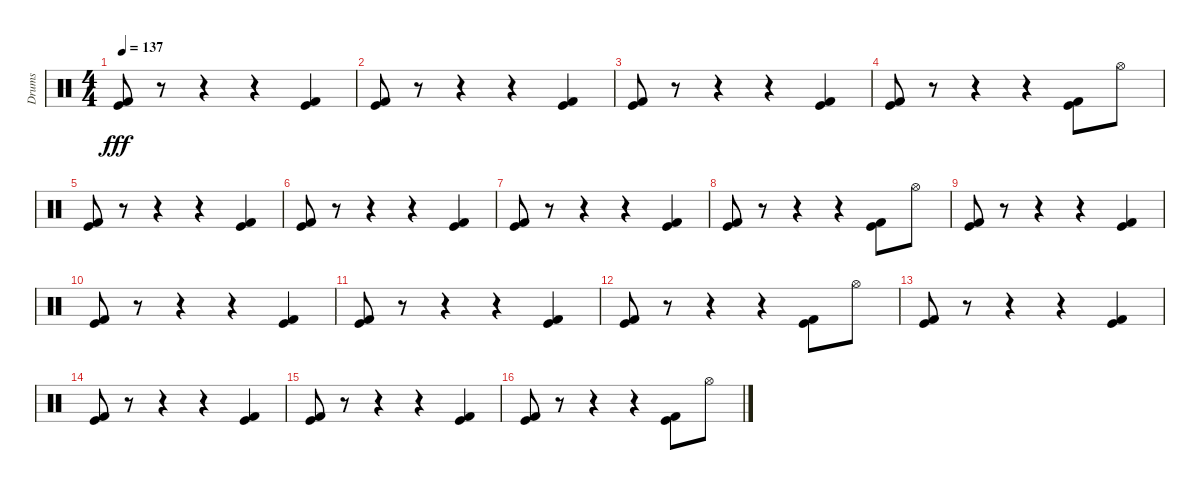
\track ("Drums" "Drums") {instrument percussion}
\staff {score}
\articulation defaults
\ts (4 4)
\tempo 137
\clef neutral
\ks c
("Kick (hit) 2" "Kick (hit)").8{dy fff} r.8 r.4 r.4 ("Kick (hit) 2" "Kick (hit)").4 |
("Kick (hit) 2" "Kick (hit)").8 r.8 r.4 r.4 ("Kick (hit) 2" "Kick (hit)").4 |
("Kick (hit) 2" "Kick (hit)").8 r.8 r.4 r.4 ("Kick (hit) 2" "Kick (hit)").4 |
("Kick (hit) 2" "Kick (hit)").8 r.8 r.4 r.4 ("Kick (hit) 2" "Kick (hit)").8 "Hi-Hat (open)".8 |
("Kick (hit) 2" "Kick (hit)").8 r.8 r.4 r.4 ("Kick (hit) 2" "Kick (hit)").4 |
("Kick (hit) 2" "Kick (hit)").8 r.8 r.4 r.4 ("Kick (hit) 2" "Kick (hit)").4 |
("Kick (hit) 2" "Kick (hit)").8 r.8 r.4 r.4 ("Kick (hit) 2" "Kick (hit)").4 |
("Kick (hit) 2" "Kick (hit)").8 r.8 r.4 r.4 ("Kick (hit) 2" "Kick (hit)").8 "Hi-Hat (open)".8 |
("Kick (hit) 2" "Kick (hit)").8 r.8 r.4 r.4 ("Kick (hit) 2" "Kick (hit)").4 |
("Kick (hit) 2" "Kick (hit)").8 r.8 r.4 r.4 ("Kick (hit) 2" "Kick (hit)").4 |
("Kick (hit) 2" "Kick (hit)").8 r.8 r.4 r.4 ("Kick (hit) 2" "Kick (hit)").4 |
("Kick (hit) 2" "Kick (hit)").8 r.8 r.4 r.4 ("Kick (hit) 2" "Kick (hit)").8 "Hi-Hat (open)".8 |
("Kick (hit) 2" "Kick (hit)").8 r.8 r.4 r.4 ("Kick (hit) 2" "Kick (hit)").4 |
("Kick (hit) 2" "Kick (hit)").8 r.8 r.4 r.4 ("Kick (hit) 2" "Kick (hit)").4 |
("Kick (hit) 2" "Kick (hit)").8 r.8 r.4 r.4 ("Kick (hit) 2" "Kick (hit)").4 |
("Kick (hit) 2" "Kick (hit)").8 r.8 r.4 r.4 ("Kick (hit) 2" "Kick (hit)").8 "Hi-Hat (open)".8
